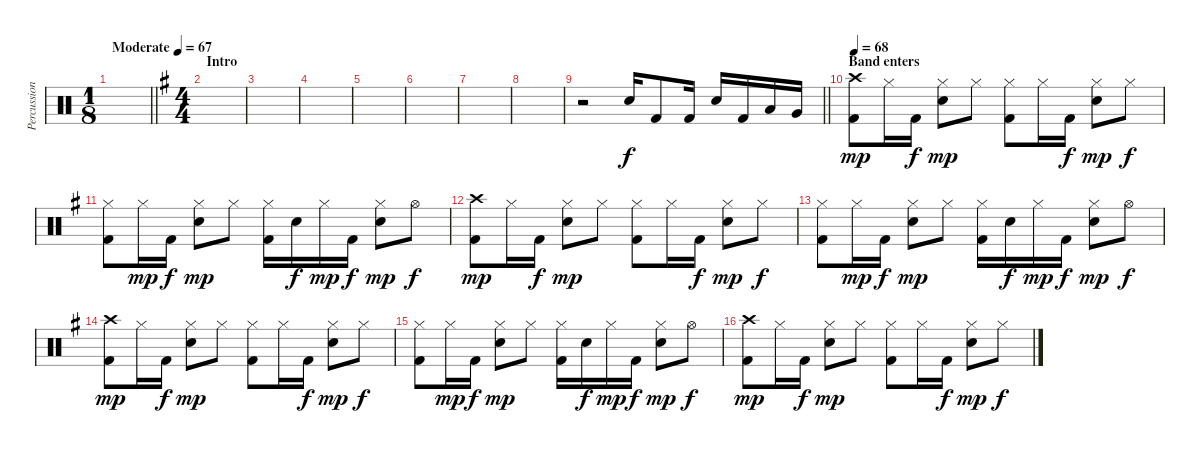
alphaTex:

\track ("Percussion" "Percussion") {instrument percussion}
\staff {score}
\articulation defaults
\ts (1 8)
\tempo (67 "Moderate")
\clef neutral
\barLineRight lightlight
\ks c
|
\ts (4 4)
\section ("" "Intro")
\ks eminor
|
|
|
|
|
|
|
\barLineRight lightlight
r.2 "Snare (hit) 2".16 "Kick (hit) 2".8 "Kick (hit) 2".16 "Snare (hit) 2".16 "Kick (hit) 2".16 "Low Tom (hit)".16 "Very Low Tom (hit)".16 |
\section ("" "Band enters")
\tempo 68
("Crash high (hit)" "Kick (hit) 2").8{dy mp} "Hi-Hat (closed)".16 "Kick (hit) 2".16{dy f} ("Hi-Hat (closed)" "Snare (hit) 2").8{dy mp} "Hi-Hat (closed)".8 ("Hi-Hat (closed)" "Kick (hit) 2").8 "Hi-Hat (closed)".16 "Kick (hit) 2".16{dy f} ("Hi-Hat (closed)" "Snare (hit) 2").8{dy mp} "Hi-Hat (closed)".8{dy f} |
("Hi-Hat (closed)" "Kick (hit) 2").8 "Hi-Hat (closed)".16{dy mp} "Kick (hit) 2".16{dy f} ("Hi-Hat (closed)" "Snare (hit) 2").8{dy mp} "Hi-Hat (closed)".8 ("Hi-Hat (closed)" "Kick (hit) 2").16 "Snare (hit) 2".16{dy f} "Hi-Hat (closed)".16{dy mp} "Kick (hit) 2".16{dy f} ("Hi-Hat (closed)" "Snare (hit) 2").8{dy mp} "Hi-Hat (open)".8{dy f} |
("Crash high (hit)" "Kick (hit) 2").8{dy mp} "Hi-Hat (closed)".16 "Kick (hit) 2".16{dy f} ("Hi-Hat (closed)" "Snare (hit) 2").8{dy mp} "Hi-Hat (closed)".8 ("Hi-Hat (closed)" "Kick (hit) 2").8 "Hi-Hat (closed)".16 "Kick (hit) 2".16{dy f} ("Hi-Hat (closed)" "Snare (hit) 2").8{dy mp} "Hi-Hat (closed)".8{dy f} |
("Hi-Hat (closed)" "Kick (hit) 2").8 "Hi-Hat (closed)".16{dy mp} "Kick (hit) 2".16{dy f} ("Hi-Hat (closed)" "Snare (hit) 2").8{dy mp} "Hi-Hat (closed)".8 ("Hi-Hat (closed)" "Kick (hit) 2").16 "Snare (hit) 2".16{dy f} "Hi-Hat (closed)".16{dy mp} "Kick (hit) 2".16{dy f} ("Hi-Hat (closed)" "Snare (hit) 2").8{dy mp} "Hi-Hat (open)".8{dy f} |
("Crash high (hit)" "Kick (hit) 2").8{dy mp} "Hi-Hat (closed)".16 "Kick (hit) 2".16{dy f} ("Hi-Hat (closed)" "Snare (hit) 2").8{dy mp} "Hi-Hat (closed)".8 ("Hi-Hat (closed)" "Kick (hit) 2").8 "Hi-Hat (closed)".16 "Kick (hit) 2".16{dy f} ("Hi-Hat (closed)" "Snare (hit) 2").8{dy mp} "Hi-Hat (closed)".8{dy f} |
("Hi-Hat (closed)" "Kick (hit) 2").8 "Hi-Hat (closed)".16{dy mp} "Kick (hit) 2".16{dy f} ("Hi-Hat (closed)" "Snare (hit) 2").8{dy mp} "Hi-Hat (closed)".8 ("Hi-Hat (closed)" "Kick (hit) 2").16 "Snare (hit) 2".16{dy f} "Hi-Hat (closed)".16{dy mp} "Kick (hit) 2".16{dy f} ("Hi-Hat (closed)" "Snare (hit) 2").8{dy mp} "Hi-Hat (open)".8{dy f} |
("Crash high (hit)" "Kick (hit) 2").8{dy mp} "Hi-Hat (closed)".16 "Kick (hit) 2".16{dy f} ("Hi-Hat (closed)" "Snare (hit) 2").8{dy mp} "Hi-Hat (closed)".8 ("Hi-Hat (closed)" "Kick (hit) 2").8 "Hi-Hat (closed)".16 "Kick (hit) 2".16{dy f} ("Hi-Hat (closed)" "Snare (hit) 2").8{dy mp} "Hi-Hat (closed)".8{dy f}
